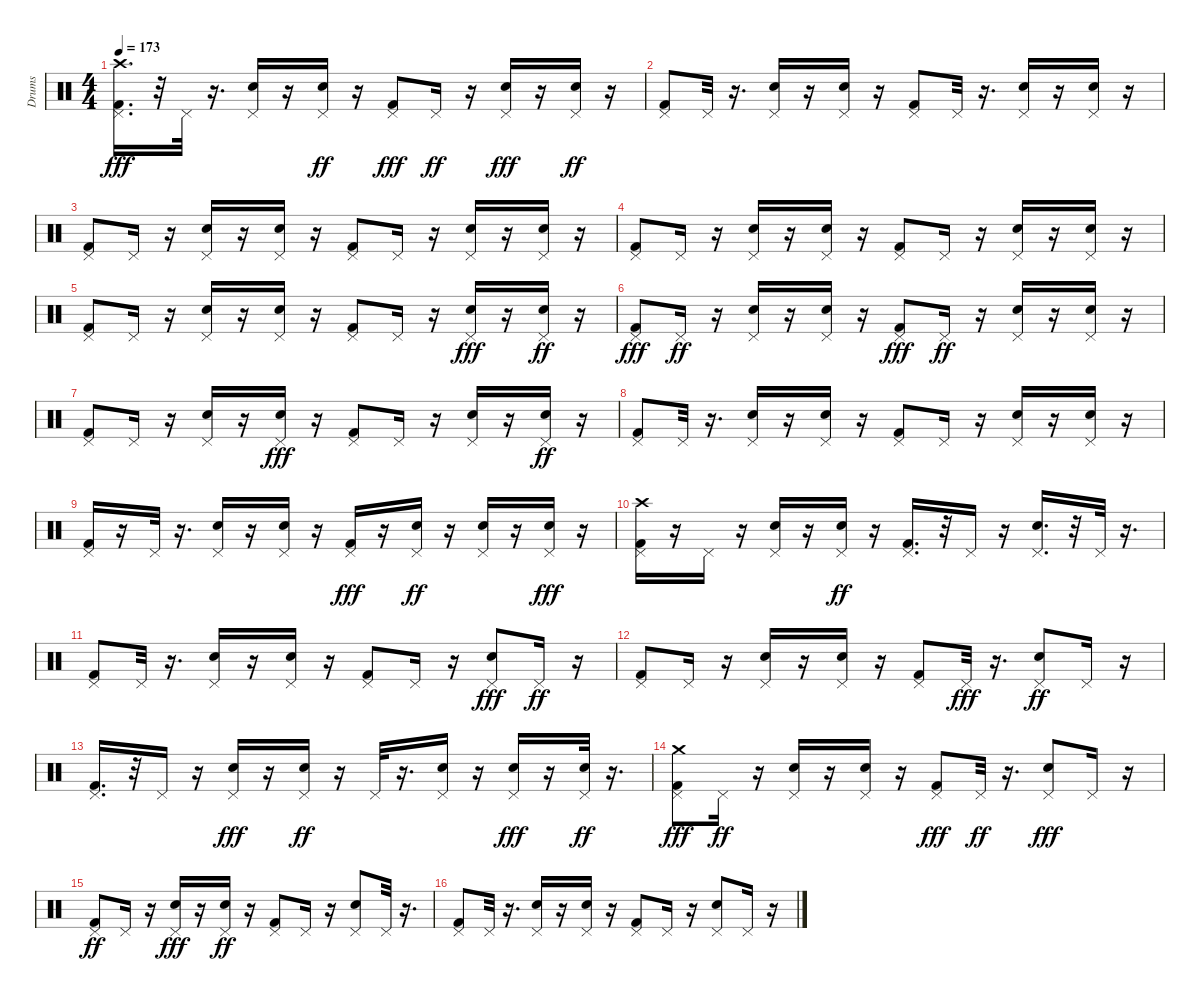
\track ("Drums" "Drums") {instrument percussion}
\staff {score}
\articulation defaults
\ts (4 4)
\tempo 173
\clef neutral
\ks c
("Kick (hit) 2" "Pedal Hi-Hat (hit)" "Crash high (hit)").16{d dy fff} r.32 "Pedal Hi-Hat (hit)".32 r.16{d} ("Snare (hit) 2" "Pedal Hi-Hat (hit)").16 r.16 ("Snare (hit) 2" "Pedal Hi-Hat (hit)").16{dy ff} r.16 ("Kick (hit) 2" "Pedal Hi-Hat (hit)").8{dy fff} "Pedal Hi-Hat (hit)".16{dy ff} r.16 ("Snare (hit) 2" "Pedal Hi-Hat (hit)").16{dy fff} r.16 ("Snare (hit) 2" "Pedal Hi-Hat (hit)").16{dy ff} r.16 |
("Kick (hit) 2" "Pedal Hi-Hat (hit)").8 "Pedal Hi-Hat (hit)".32 r.16{d} ("Snare (hit) 2" "Pedal Hi-Hat (hit)").16 r.16 ("Snare (hit) 2" "Pedal Hi-Hat (hit)").16 r.16 ("Kick (hit) 2" "Pedal Hi-Hat (hit)").8 "Pedal Hi-Hat (hit)".32 r.16{d} ("Snare (hit) 2" "Pedal Hi-Hat (hit)").16 r.16 ("Snare (hit) 2" "Pedal Hi-Hat (hit)").16 r.16 |
("Kick (hit) 2" "Pedal Hi-Hat (hit)").8 "Pedal Hi-Hat (hit)".16 r.16 ("Snare (hit) 2" "Pedal Hi-Hat (hit)").16 r.16 ("Snare (hit) 2" "Pedal Hi-Hat (hit)").16 r.16 ("Kick (hit) 2" "Pedal Hi-Hat (hit)").8 "Pedal Hi-Hat (hit)".16 r.16 ("Snare (hit) 2" "Pedal Hi-Hat (hit)").16 r.16 ("Snare (hit) 2" "Pedal Hi-Hat (hit)").16 r.16 |
("Kick (hit) 2" "Pedal Hi-Hat (hit)").8 "Pedal Hi-Hat (hit)".16 r.16 ("Snare (hit) 2" "Pedal Hi-Hat (hit)").16 r.16 ("Snare (hit) 2" "Pedal Hi-Hat (hit)").16 r.16 ("Kick (hit) 2" "Pedal Hi-Hat (hit)").8 "Pedal Hi-Hat (hit)".16 r.16 ("Snare (hit) 2" "Pedal Hi-Hat (hit)").16 r.16 ("Snare (hit) 2" "Pedal Hi-Hat (hit)").16 r.16 |
("Kick (hit) 2" "Pedal Hi-Hat (hit)").8 "Pedal Hi-Hat (hit)".16 r.16 ("Snare (hit) 2" "Pedal Hi-Hat (hit)").16 r.16 ("Snare (hit) 2" "Pedal Hi-Hat (hit)").16 r.16 ("Kick (hit) 2" "Pedal Hi-Hat (hit)").8 "Pedal Hi-Hat (hit)".16 r.16 ("Snare (hit) 2" "Pedal Hi-Hat (hit)").16{dy fff} r.16 ("Snare (hit) 2" "Pedal Hi-Hat (hit)").16{dy ff} r.16 |
("Kick (hit) 2" "Pedal Hi-Hat (hit)").8{dy fff} "Pedal Hi-Hat (hit)".16{dy ff} r.16 ("Snare (hit) 2" "Pedal Hi-Hat (hit)").16 r.16 ("Snare (hit) 2" "Pedal Hi-Hat (hit)").16 r.16 ("Kick (hit) 2" "Pedal Hi-Hat (hit)").8{dy fff} "Pedal Hi-Hat (hit)".16{dy ff} r.16 ("Snare (hit) 2" "Pedal Hi-Hat (hit)").16 r.16 ("Snare (hit) 2" "Pedal Hi-Hat (hit)").16 r.16 |
("Kick (hit) 2" "Pedal Hi-Hat (hit)").8 "Pedal Hi-Hat (hit)".16 r.16 ("Snare (hit) 2" "Pedal Hi-Hat (hit)").16 r.16 ("Snare (hit) 2" "Pedal Hi-Hat (hit)").16{dy fff} r.16 ("Kick (hit) 2" "Pedal Hi-Hat (hit)").8 "Pedal Hi-Hat (hit)".16 r.16 ("Snare (hit) 2" "Pedal Hi-Hat (hit)").16 r.16 ("Snare (hit) 2" "Pedal Hi-Hat (hit)").16{dy ff} r.16 |
("Kick (hit) 2" "Pedal Hi-Hat (hit)").8 "Pedal Hi-Hat (hit)".32 r.16{d} ("Snare (hit) 2" "Pedal Hi-Hat (hit)").16 r.16 ("Snare (hit) 2" "Pedal Hi-Hat (hit)").16 r.16 ("Kick (hit) 2" "Pedal Hi-Hat (hit)").8 "Pedal Hi-Hat (hit)".16 r.16 ("Snare (hit) 2" "Pedal Hi-Hat (hit)").16 r.16 ("Snare (hit) 2" "Pedal Hi-Hat (hit)").16 r.16 |
("Kick (hit) 2" "Pedal Hi-Hat (hit)").16 r.16 "Pedal Hi-Hat (hit)".32 r.16{d} ("Snare (hit) 2" "Pedal Hi-Hat (hit)").16 r.16 ("Snare (hit) 2" "Pedal Hi-Hat (hit)").16 r.16 ("Kick (hit) 2" "Pedal Hi-Hat (hit)").16{dy fff} r.16 ("Snare (hit) 2" "Pedal Hi-Hat (hit)").16{dy ff} r.16 ("Snare (hit) 2" "Pedal Hi-Hat (hit)").16 r.16 ("Snare (hit) 2" "Pedal Hi-Hat (hit)").16{dy fff} r.16 |
("Kick (hit) 2" "Pedal Hi-Hat (hit)" "Crash high (hit)").16 r.16 "Pedal Hi-Hat (hit)".16 r.16 ("Snare (hit) 2" "Pedal Hi-Hat (hit)").16 r.16 ("Snare (hit) 2" "Pedal Hi-Hat (hit)").16{dy ff} r.16 ("Kick (hit) 2" "Pedal Hi-Hat (hit)").16{d} r.32 "Pedal Hi-Hat (hit)".16 r.16 ("Snare (hit) 2" "Pedal Hi-Hat (hit)").16{d} r.32 "Pedal Hi-Hat (hit)".32 r.16{d} |
("Kick (hit) 2" "Pedal Hi-Hat (hit)").8 "Pedal Hi-Hat (hit)".32 r.16{d} ("Snare (hit) 2" "Pedal Hi-Hat (hit)").16 r.16 ("Snare (hit) 2" "Pedal Hi-Hat (hit)").16 r.16 ("Kick (hit) 2" "Pedal Hi-Hat (hit)").8 "Pedal Hi-Hat (hit)".16 r.16 ("Snare (hit) 2" "Pedal Hi-Hat (hit)").8{dy fff} "Pedal Hi-Hat (hit)".16{dy ff} r.16 |
("Kick (hit) 2" "Pedal Hi-Hat (hit)").8 "Pedal Hi-Hat (hit)".16 r.16 ("Snare (hit) 2" "Pedal Hi-Hat (hit)").16 r.16 ("Snare (hit) 2" "Pedal Hi-Hat (hit)").16 r.16 ("Kick (hit) 2" "Pedal Hi-Hat (hit)").8 "Pedal Hi-Hat (hit)".32{dy fff} r.16{d} ("Snare (hit) 2" "Pedal Hi-Hat (hit)").8{dy ff} "Pedal Hi-Hat (hit)".16 r.16 |
("Kick (hit) 2" "Pedal Hi-Hat (hit)").16{d} r.32 "Pedal Hi-Hat (hit)".16 r.16 ("Snare (hit) 2" "Pedal Hi-Hat (hit)").16{dy fff} r.16 ("Snare (hit) 2" "Pedal Hi-Hat (hit)").16{dy ff} r.16 "Pedal Hi-Hat (hit)".32 r.16{d} ("Snare (hit) 2" "Pedal Hi-Hat (hit)").16 r.16 ("Snare (hit) 2" "Pedal Hi-Hat (hit)").16{dy fff} r.16 ("Snare (hit) 2" "Pedal Hi-Hat (hit)").32{dy ff} r.16{d} |
("Kick (hit) 2" "Pedal Hi-Hat (hit)" "Crash medium (hit)").8{dy fff} "Pedal Hi-Hat (hit)".16{dy ff} r.16 ("Snare (hit) 2" "Pedal Hi-Hat (hit)").16 r.16 ("Snare (hit) 2" "Pedal Hi-Hat (hit)").16 r.16 ("Kick (hit) 2" "Pedal Hi-Hat (hit)").8{dy fff} "Pedal Hi-Hat (hit)".32{dy ff} r.16{d} ("Snare (hit) 2" "Pedal Hi-Hat (hit)").8{dy fff} "Pedal Hi-Hat (hit)".16 r.16 |
("Kick (hit) 2" "Pedal Hi-Hat (hit)").8{dy ff} "Pedal Hi-Hat (hit)".16 r.16 ("Snare (hit) 2" "Pedal Hi-Hat (hit)").16{dy fff} r.16 ("Snare (hit) 2" "Pedal Hi-Hat (hit)").16{dy ff} r.16 ("Kick (hit) 2" "Pedal Hi-Hat (hit)").8 "Pedal Hi-Hat (hit)".16 r.16 ("Snare (hit) 2" "Pedal Hi-Hat (hit)").8 "Pedal Hi-Hat (hit)".32 r.16{d} |
("Kick (hit) 2" "Pedal Hi-Hat (hit)").8 "Pedal Hi-Hat (hit)".32 r.16{d} ("Snare (hit) 2" "Pedal Hi-Hat (hit)").16 r.16 ("Snare (hit) 2" "Pedal Hi-Hat (hit)").16 r.16 ("Kick (hit) 2" "Pedal Hi-Hat (hit)").8 "Pedal Hi-Hat (hit)".16 r.16 ("Snare (hit) 2" "Pedal Hi-Hat (hit)").8 "Pedal Hi-Hat (hit)".16 r.16
